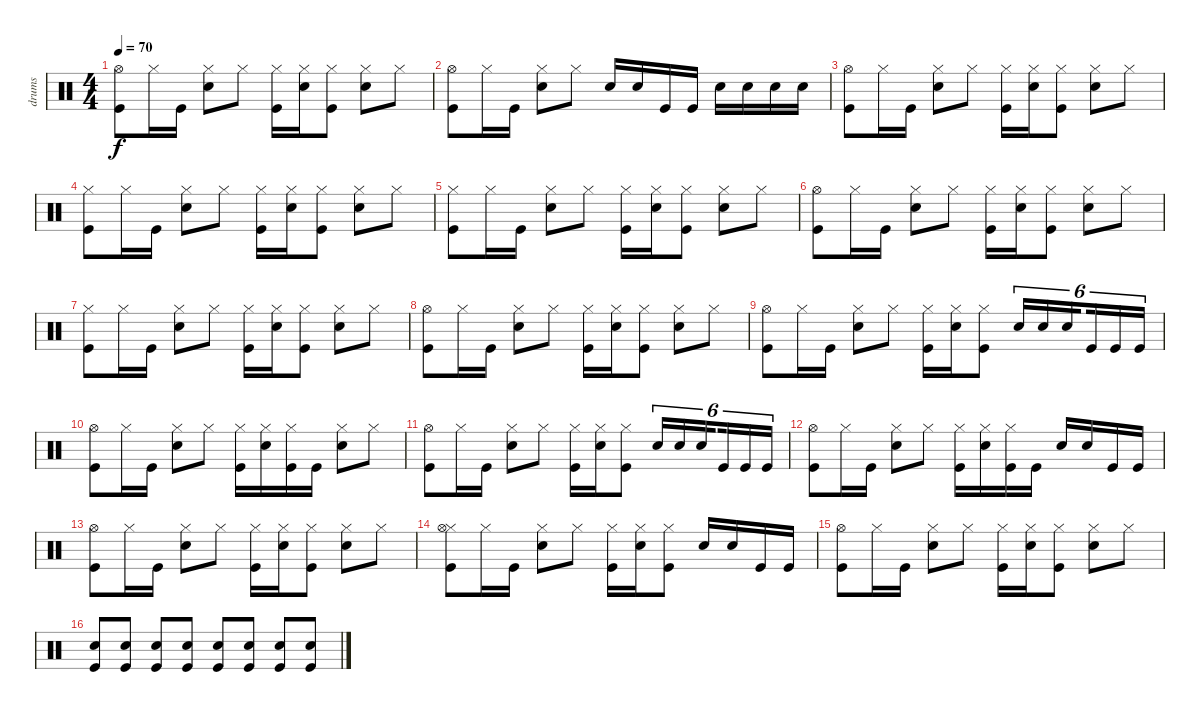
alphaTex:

\track ("drums" "drums") {instrument percussion}
\staff {score}
\articulation defaults
\ts (4 4)
\tempo 70
\clef neutral
\ks c
("Kick (hit)" "Hi-Hat (open)").8{dy f} "Hi-Hat (closed)".16 "Kick (hit)".16 ("Snare (hit) 2" "Hi-Hat (closed)").8 "Hi-Hat (closed)".8 ("Kick (hit)" "Hi-Hat (closed)").16 ("Snare (hit) 2" "Hi-Hat (closed)").16 ("Kick (hit)" "Hi-Hat (closed)").8 ("Snare (hit) 2" "Hi-Hat (closed)").8 "Hi-Hat (closed)".8 |
("Kick (hit)" "Hi-Hat (open)").8 "Hi-Hat (closed)".16 "Kick (hit)".16 ("Snare (hit) 2" "Hi-Hat (closed)").8 "Hi-Hat (closed)".8 "Snare (hit) 2".16 "Snare (hit) 2".16 "Kick (hit)".16 "Kick (hit)".16 "Snare (hit) 2".16 "Snare (hit) 2".16 "Snare (hit) 2".16 "Snare (hit) 2".16 |
("Kick (hit)" "Hi-Hat (open)").8 "Hi-Hat (closed)".16 "Kick (hit)".16 ("Snare (hit) 2" "Hi-Hat (closed)").8 "Hi-Hat (closed)".8 ("Kick (hit)" "Hi-Hat (closed)").16 ("Snare (hit) 2" "Hi-Hat (closed)").16 ("Kick (hit)" "Hi-Hat (closed)").8 ("Snare (hit) 2" "Hi-Hat (closed)").8 "Hi-Hat (closed)".8 |
("Kick (hit)" "Hi-Hat (closed)").8 "Hi-Hat (closed)".16 "Kick (hit)".16 ("Snare (hit) 2" "Hi-Hat (closed)").8 "Hi-Hat (closed)".8 ("Kick (hit)" "Hi-Hat (closed)").16 ("Snare (hit) 2" "Hi-Hat (closed)").16 ("Kick (hit)" "Hi-Hat (closed)").8 ("Snare (hit) 2" "Hi-Hat (closed)").8 "Hi-Hat (closed)".8 |
("Kick (hit)" "Hi-Hat (closed)").8 "Hi-Hat (closed)".16 "Kick (hit)".16 ("Snare (hit) 2" "Hi-Hat (closed)").8 "Hi-Hat (closed)".8 ("Kick (hit)" "Hi-Hat (closed)").16 ("Snare (hit) 2" "Hi-Hat (closed)").16 ("Kick (hit)" "Hi-Hat (closed)").8 ("Snare (hit) 2" "Hi-Hat (closed)").8 "Hi-Hat (closed)".8 |
("Kick (hit)" "Hi-Hat (open)").8 "Hi-Hat (closed)".16 "Kick (hit)".16 ("Snare (hit) 2" "Hi-Hat (closed)").8 "Hi-Hat (closed)".8 ("Kick (hit)" "Hi-Hat (closed)").16 ("Snare (hit) 2" "Hi-Hat (closed)").16 ("Kick (hit)" "Hi-Hat (closed)").8 ("Snare (hit) 2" "Hi-Hat (closed)").8 "Hi-Hat (closed)".8 |
("Kick (hit)" "Hi-Hat (closed)").8 "Hi-Hat (closed)".16 "Kick (hit)".16 ("Snare (hit) 2" "Hi-Hat (closed)").8 "Hi-Hat (closed)".8 ("Kick (hit)" "Hi-Hat (closed)").16 ("Snare (hit) 2" "Hi-Hat (closed)").16 ("Kick (hit)" "Hi-Hat (closed)").8 ("Snare (hit) 2" "Hi-Hat (closed)").8 "Hi-Hat (closed)".8 |
("Kick (hit)" "Hi-Hat (open)").8 "Hi-Hat (closed)".16 "Kick (hit)".16 ("Snare (hit) 2" "Hi-Hat (closed)").8 "Hi-Hat (closed)".8 ("Kick (hit)" "Hi-Hat (closed)").16 ("Snare (hit) 2" "Hi-Hat (closed)").16 ("Kick (hit)" "Hi-Hat (closed)").8 ("Snare (hit) 2" "Hi-Hat (closed)").8 "Hi-Hat (closed)".8 |
("Kick (hit)" "Hi-Hat (open)").8 "Hi-Hat (closed)".16 "Kick (hit)".16 ("Snare (hit) 2" "Hi-Hat (closed)").8 "Hi-Hat (closed)".8 ("Kick (hit)" "Hi-Hat (closed)").16 ("Snare (hit) 2" "Hi-Hat (closed)").16 ("Kick (hit)" "Hi-Hat (closed)").8 "Snare (hit) 2".16{tu (6 4)} "Snare (hit) 2".16{tu (6 4)} "Snare (hit) 2".16{tu (6 4) beam splitsecondary} "Kick (hit)".16{tu (6 4)} "Kick (hit)".16{tu (6 4)} "Kick (hit)".16{tu (6 4)} |
("Kick (hit)" "Hi-Hat (open)").8 "Hi-Hat (closed)".16 "Kick (hit)".16 ("Snare (hit) 2" "Hi-Hat (closed)").8 "Hi-Hat (closed)".8 ("Kick (hit)" "Hi-Hat (closed)").16 ("Snare (hit) 2" "Hi-Hat (closed)").16 ("Kick (hit)" "Hi-Hat (closed)").16 "Kick (hit)".16 ("Snare (hit) 2" "Hi-Hat (closed)").8 "Hi-Hat (closed)".8 |
("Kick (hit)" "Hi-Hat (open)").8 "Hi-Hat (closed)".16 "Kick (hit)".16 ("Snare (hit) 2" "Hi-Hat (closed)").8 "Hi-Hat (closed)".8 ("Kick (hit)" "Hi-Hat (closed)").16 ("Snare (hit) 2" "Hi-Hat (closed)").16 ("Kick (hit)" "Hi-Hat (closed)").8 "Snare (hit) 2".16{tu (6 4)} "Snare (hit) 2".16{tu (6 4)} "Snare (hit) 2".16{tu (6 4) beam splitsecondary} "Kick (hit)".16{tu (6 4)} "Kick (hit)".16{tu (6 4)} "Kick (hit)".16{tu (6 4)} |
("Kick (hit)" "Hi-Hat (open)").8 "Hi-Hat (closed)".16 "Kick (hit)".16 ("Snare (hit) 2" "Hi-Hat (closed)").8 "Hi-Hat (closed)".8 ("Kick (hit)" "Hi-Hat (closed)").16 ("Snare (hit) 2" "Hi-Hat (closed)").16 ("Kick (hit)" "Hi-Hat (closed)").16 "Kick (hit)".16 "Snare (hit) 2".16 "Snare (hit) 2".16 "Kick (hit)".16 "Kick (hit)".16 |
("Kick (hit)" "Hi-Hat (open)").8 "Hi-Hat (closed)".16 "Kick (hit)".16 ("Snare (hit) 2" "Hi-Hat (closed)").8 "Hi-Hat (closed)".8 ("Kick (hit)" "Hi-Hat (closed)").16 ("Snare (hit) 2" "Hi-Hat (closed)").16 ("Kick (hit)" "Hi-Hat (closed)").8 ("Snare (hit) 2" "Hi-Hat (closed)").8 "Hi-Hat (closed)".8 |
("Kick (hit)" "Hi-Hat (closed)" "Hi-Hat (open)").8 "Hi-Hat (closed)".16 "Kick (hit)".16 ("Snare (hit) 2" "Hi-Hat (closed)").8 "Hi-Hat (closed)".8 ("Kick (hit)" "Hi-Hat (closed)").16 ("Snare (hit) 2" "Hi-Hat (closed)").16 ("Kick (hit)" "Hi-Hat (closed)").8 "Snare (hit) 2".16 "Snare (hit) 2".16 "Kick (hit)".16 "Kick (hit)".16 |
("Kick (hit)" "Hi-Hat (open)").8 "Hi-Hat (closed)".16 "Kick (hit)".16 ("Snare (hit) 2" "Hi-Hat (closed)").8 "Hi-Hat (closed)".8 ("Kick (hit)" "Hi-Hat (closed)").16 ("Snare (hit) 2" "Hi-Hat (closed)").16 ("Kick (hit)" "Hi-Hat (closed)").8 ("Snare (hit) 2" "Hi-Hat (closed)").8 "Hi-Hat (closed)".8 |
("Kick (hit)" "Snare (hit) 2").8 ("Kick (hit)" "Snare (hit) 2").8 ("Kick (hit)" "Snare (hit) 2").8 ("Kick (hit)" "Snare (hit) 2").8 ("Kick (hit)" "Snare (hit) 2").8 ("Kick (hit)" "Snare (hit) 2").8 ("Kick (hit)" "Snare (hit) 2").8 ("Kick (hit)" "Snare (hit) 2").8
